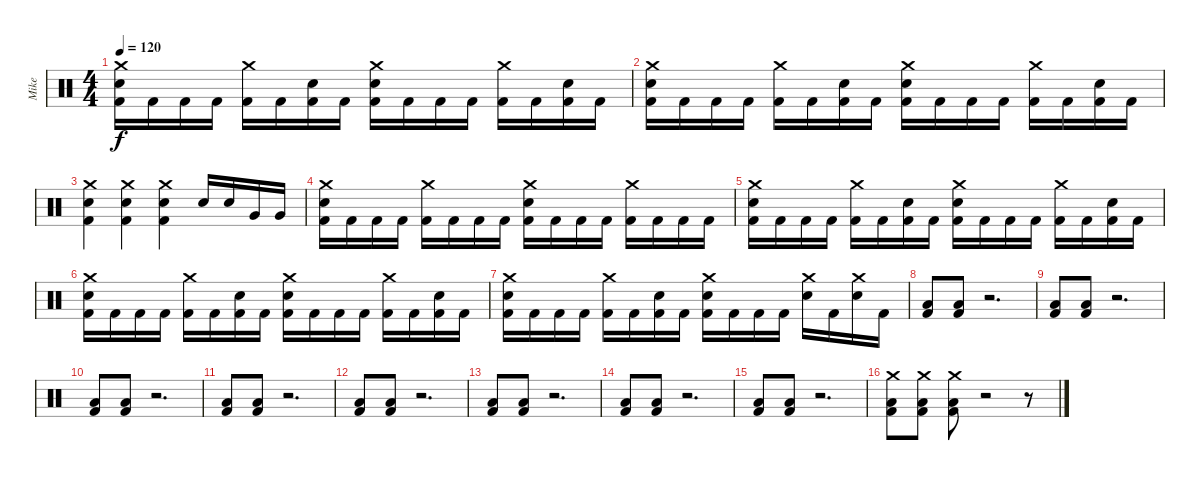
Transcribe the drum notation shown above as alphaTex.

\track ("Mike" "Mike") {instrument percussion}
\staff {score}
\articulation defaults
\ts (4 4)
\tempo 120
\clef neutral
\ks c
("Crash medium (hit)" "Electric Snare (hit)" "Kick (hit) 2").16{dy f} "Kick (hit) 2".16 "Kick (hit) 2".16 "Kick (hit) 2".16 ("Crash medium (hit)" "Kick (hit) 2").16 "Kick (hit) 2".16 ("Electric Snare (hit)" "Kick (hit) 2").16 "Kick (hit) 2".16 ("Crash medium (hit)" "Electric Snare (hit)" "Kick (hit) 2").16 "Kick (hit) 2".16 "Kick (hit) 2".16 "Kick (hit) 2".16 ("Crash medium (hit)" "Kick (hit) 2").16 "Kick (hit) 2".16 ("Electric Snare (hit)" "Kick (hit) 2").16 "Kick (hit) 2".16 |
("Crash medium (hit)" "Electric Snare (hit)" "Kick (hit) 2").16 "Kick (hit) 2".16 "Kick (hit) 2".16 "Kick (hit) 2".16 ("Crash medium (hit)" "Kick (hit) 2").16 "Kick (hit) 2".16 ("Electric Snare (hit)" "Kick (hit) 2").16 "Kick (hit) 2".16 ("Crash medium (hit)" "Electric Snare (hit)" "Kick (hit) 2").16 "Kick (hit) 2".16 "Kick (hit) 2".16 "Kick (hit) 2".16 ("Crash medium (hit)" "Kick (hit) 2").16 "Kick (hit) 2".16 ("Electric Snare (hit)" "Kick (hit) 2").16 "Kick (hit) 2".16 |
("Crash medium (hit)" "Electric Snare (hit)" "Kick (hit) 2").4 ("Crash medium (hit)" "Electric Snare (hit)" "Kick (hit) 2").4 ("Crash medium (hit)" "Electric Snare (hit)" "Kick (hit) 2").4 "Electric Snare (hit)".16 "Electric Snare (hit)".16 "Very Low Tom (hit)".16 "Very Low Tom (hit)".16 |
("Crash medium (hit)" "Electric Snare (hit)" "Kick (hit) 2").16 "Kick (hit) 2".16 "Kick (hit) 2".16 "Kick (hit) 2".16 ("Crash medium (hit)" "Kick (hit) 2").16 "Kick (hit) 2".16 "Kick (hit) 2".16 "Kick (hit) 2".16 ("Crash medium (hit)" "Electric Snare (hit)" "Kick (hit) 2").16 "Kick (hit) 2".16 "Kick (hit) 2".16 "Kick (hit) 2".16 ("Crash medium (hit)" "Kick (hit) 2").16 "Kick (hit) 2".16 "Kick (hit) 2".16 "Kick (hit) 2".16 |
("Crash medium (hit)" "Electric Snare (hit)" "Kick (hit) 2").16 "Kick (hit) 2".16 "Kick (hit) 2".16 "Kick (hit) 2".16 ("Crash medium (hit)" "Kick (hit) 2").16 "Kick (hit) 2".16 ("Electric Snare (hit)" "Kick (hit) 2").16 "Kick (hit) 2".16 ("Crash medium (hit)" "Electric Snare (hit)" "Kick (hit) 2").16 "Kick (hit) 2".16 "Kick (hit) 2".16 "Kick (hit) 2".16 ("Crash medium (hit)" "Kick (hit) 2").16 "Kick (hit) 2".16 ("Electric Snare (hit)" "Kick (hit) 2").16 "Kick (hit) 2".16 |
("Crash medium (hit)" "Electric Snare (hit)" "Kick (hit) 2").16 "Kick (hit) 2".16 "Kick (hit) 2".16 "Kick (hit) 2".16 ("Crash medium (hit)" "Kick (hit) 2").16 "Kick (hit) 2".16 ("Electric Snare (hit)" "Kick (hit) 2").16 "Kick (hit) 2".16 ("Crash medium (hit)" "Electric Snare (hit)" "Kick (hit) 2").16 "Kick (hit) 2".16 "Kick (hit) 2".16 "Kick (hit) 2".16 ("Crash medium (hit)" "Kick (hit) 2").16 "Kick (hit) 2".16 ("Electric Snare (hit)" "Kick (hit) 2").16 "Kick (hit) 2".16 |
("Crash medium (hit)" "Electric Snare (hit)" "Kick (hit) 2").16 "Kick (hit) 2".16 "Kick (hit) 2".16 "Kick (hit) 2".16 ("Crash medium (hit)" "Kick (hit) 2").16 "Kick (hit) 2".16 ("Electric Snare (hit)" "Kick (hit) 2").16 "Kick (hit) 2".16 ("Crash medium (hit)" "Electric Snare (hit)" "Kick (hit) 2").16 "Kick (hit) 2".16 "Kick (hit) 2".16 "Kick (hit) 2".16 ("Crash medium (hit)" "Electric Snare (hit)").16 "Kick (hit) 2".16 ("Crash medium (hit)" "Electric Snare (hit)").16 "Kick (hit) 2".16 |
("Low Floor Tom (hit)" "Kick (hit) 2").8 ("Low Floor Tom (hit)" "Kick (hit) 2").8 r.2{d} |
("Low Floor Tom (hit)" "Kick (hit) 2").8 ("Low Floor Tom (hit)" "Kick (hit) 2").8 r.2{d} |
("Low Floor Tom (hit)" "Kick (hit) 2").8 ("Low Floor Tom (hit)" "Kick (hit) 2").8 r.2{d} |
("Low Floor Tom (hit)" "Kick (hit) 2").8 ("Low Floor Tom (hit)" "Kick (hit) 2").8 r.2{d} |
("Low Floor Tom (hit)" "Kick (hit) 2").8 ("Low Floor Tom (hit)" "Kick (hit) 2").8 r.2{d} |
("Low Floor Tom (hit)" "Kick (hit) 2").8 ("Low Floor Tom (hit)" "Kick (hit) 2").8 r.2{d} |
("Low Floor Tom (hit)" "Kick (hit) 2").8 ("Low Floor Tom (hit)" "Kick (hit) 2").8 r.2{d} |
("Low Floor Tom (hit)" "Kick (hit) 2").8 ("Low Floor Tom (hit)" "Kick (hit) 2").8 r.2{d} |
("Crash medium (hit)" "Low Floor Tom (hit)" "Kick (hit) 2").8 ("Crash medium (hit)" "Low Floor Tom (hit)" "Kick (hit) 2").8 ("Crash medium (hit)" "Low Floor Tom (hit)" "Kick (hit) 2").8 r.2 r.8
